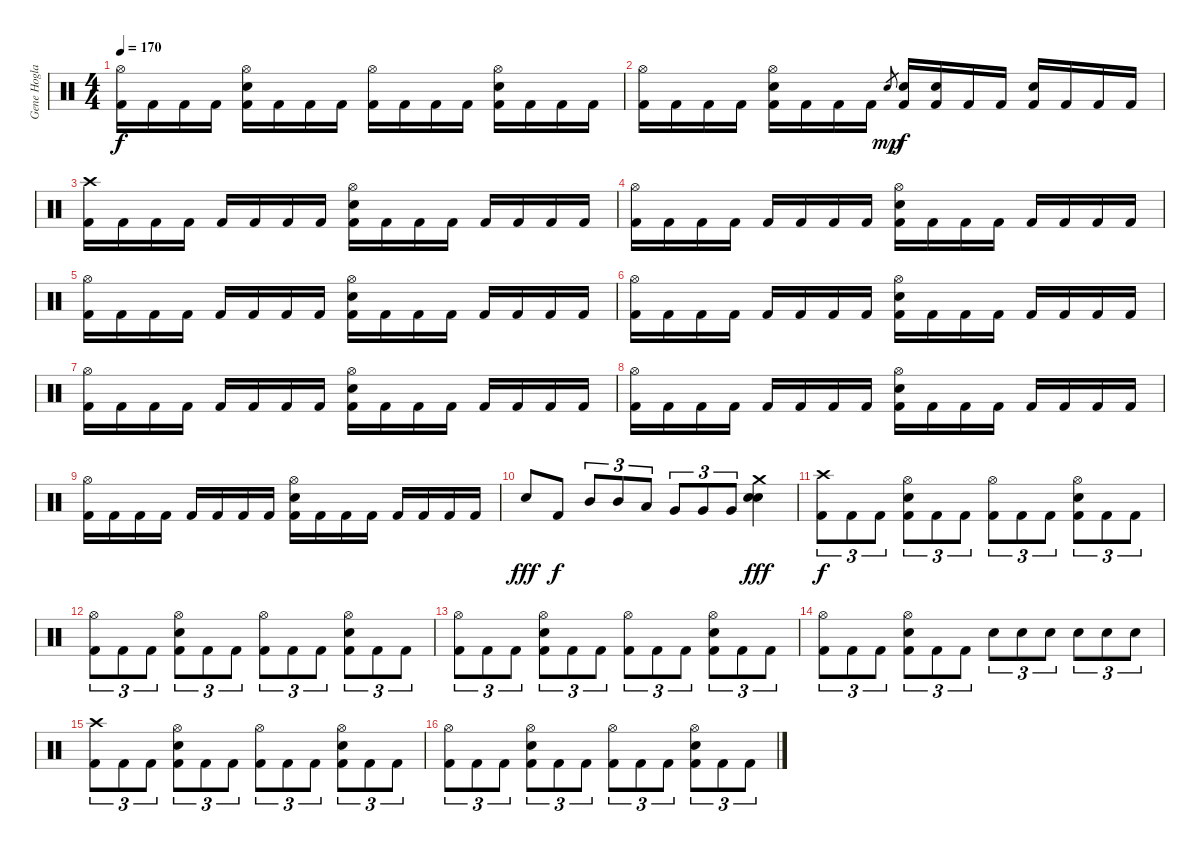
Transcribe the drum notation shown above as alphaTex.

\track ("Gene Hoglan" "Gene Hogla") {instrument percussion}
\staff {score}
\articulation defaults
\ts (4 4)
\tempo 170
\clef neutral
\ks c
("Hi-Hat (open)" "Kick (hit) 2").16{dy f} "Kick (hit) 2".16 "Kick (hit) 2".16 "Kick (hit) 2".16 ("Hi-Hat (open)" "Snare (hit) 2" "Kick (hit) 2").16 "Kick (hit) 2".16 "Kick (hit) 2".16 "Kick (hit) 2".16 ("Hi-Hat (open)" "Kick (hit) 2").16 "Kick (hit) 2".16 "Kick (hit) 2".16 "Kick (hit) 2".16 ("Hi-Hat (open)" "Snare (hit) 2" "Kick (hit) 2").16 "Kick (hit) 2".16 "Kick (hit) 2".16 "Kick (hit) 2".16 |
("Hi-Hat (open)" "Kick (hit) 2").16 "Kick (hit) 2".16 "Kick (hit) 2".16 "Kick (hit) 2".16 ("Hi-Hat (open)" "Snare (hit) 2" "Kick (hit) 2").16 "Kick (hit) 2".16 "Kick (hit) 2".16 "Kick (hit) 2".16 "Snare (hit) 2".8{gr dy mp} ("Snare (hit) 2" "Kick (hit) 2").16{dy f} ("Snare (hit) 2" "Kick (hit) 2").16 "Kick (hit) 2".16 "Kick (hit) 2".16 ("Snare (hit) 2" "Kick (hit) 2").16 "Kick (hit) 2".16 "Kick (hit) 2".16 "Kick (hit) 2".16 |
("Crash high (hit)" "Kick (hit) 2").16 "Kick (hit) 2".16 "Kick (hit) 2".16 "Kick (hit) 2".16 "Kick (hit) 2".16 "Kick (hit) 2".16 "Kick (hit) 2".16 "Kick (hit) 2".16 ("Hi-Hat (open)" "Snare (hit) 2" "Kick (hit) 2").16 "Kick (hit) 2".16 "Kick (hit) 2".16 "Kick (hit) 2".16 "Kick (hit) 2".16 "Kick (hit) 2".16 "Kick (hit) 2".16 "Kick (hit) 2".16 |
("Hi-Hat (open)" "Kick (hit) 2").16 "Kick (hit) 2".16 "Kick (hit) 2".16 "Kick (hit) 2".16 "Kick (hit) 2".16 "Kick (hit) 2".16 "Kick (hit) 2".16 "Kick (hit) 2".16 ("Hi-Hat (open)" "Snare (hit) 2" "Kick (hit) 2").16 "Kick (hit) 2".16 "Kick (hit) 2".16 "Kick (hit) 2".16 "Kick (hit) 2".16 "Kick (hit) 2".16 "Kick (hit) 2".16 "Kick (hit) 2".16 |
("Hi-Hat (open)" "Kick (hit) 2").16 "Kick (hit) 2".16 "Kick (hit) 2".16 "Kick (hit) 2".16 "Kick (hit) 2".16 "Kick (hit) 2".16 "Kick (hit) 2".16 "Kick (hit) 2".16 ("Hi-Hat (open)" "Snare (hit) 2" "Kick (hit) 2").16 "Kick (hit) 2".16 "Kick (hit) 2".16 "Kick (hit) 2".16 "Kick (hit) 2".16 "Kick (hit) 2".16 "Kick (hit) 2".16 "Kick (hit) 2".16 |
("Hi-Hat (open)" "Kick (hit) 2").16 "Kick (hit) 2".16 "Kick (hit) 2".16 "Kick (hit) 2".16 "Kick (hit) 2".16 "Kick (hit) 2".16 "Kick (hit) 2".16 "Kick (hit) 2".16 ("Hi-Hat (open)" "Snare (hit) 2" "Kick (hit) 2").16 "Kick (hit) 2".16 "Kick (hit) 2".16 "Kick (hit) 2".16 "Kick (hit) 2".16 "Kick (hit) 2".16 "Kick (hit) 2".16 "Kick (hit) 2".16 |
("Hi-Hat (open)" "Kick (hit) 2").16 "Kick (hit) 2".16 "Kick (hit) 2".16 "Kick (hit) 2".16 "Kick (hit) 2".16 "Kick (hit) 2".16 "Kick (hit) 2".16 "Kick (hit) 2".16 ("Hi-Hat (open)" "Snare (hit) 2" "Kick (hit) 2").16 "Kick (hit) 2".16 "Kick (hit) 2".16 "Kick (hit) 2".16 "Kick (hit) 2".16 "Kick (hit) 2".16 "Kick (hit) 2".16 "Kick (hit) 2".16 |
("Hi-Hat (open)" "Kick (hit) 2").16 "Kick (hit) 2".16 "Kick (hit) 2".16 "Kick (hit) 2".16 "Kick (hit) 2".16 "Kick (hit) 2".16 "Kick (hit) 2".16 "Kick (hit) 2".16 ("Hi-Hat (open)" "Snare (hit) 2" "Kick (hit) 2").16 "Kick (hit) 2".16 "Kick (hit) 2".16 "Kick (hit) 2".16 "Kick (hit) 2".16 "Kick (hit) 2".16 "Kick (hit) 2".16 "Kick (hit) 2".16 |
("Hi-Hat (open)" "Kick (hit) 2").16 "Kick (hit) 2".16 "Kick (hit) 2".16 "Kick (hit) 2".16 "Kick (hit) 2".16 "Kick (hit) 2".16 "Kick (hit) 2".16 "Kick (hit) 2".16 ("Hi-Hat (open)" "Snare (hit) 2" "Kick (hit) 2").16 "Kick (hit) 2".16 "Kick (hit) 2".16 "Kick (hit) 2".16 "Kick (hit) 2".16 "Kick (hit) 2".16 "Kick (hit) 2".16 "Kick (hit) 2".16 |
"Snare (hit) 2".8{dy fff} "Kick (hit) 2".8{dy f} "Mid Tom (hit)".8{tu (3 2)} "Mid Tom (hit)".8{tu (3 2)} "Low Tom (hit)".8{tu (3 2)} "Very Low Tom (hit)".8{tu (3 2)} "Very Low Tom (hit)".8{tu (3 2)} "Very Low Tom (hit)".8{tu (3 2)} ("Crash medium (hit)" "Snare (hit) 2" "Snare (hit) 2").4{dy fff} |
("Crash high (hit)" "Kick (hit) 2").8{tu (3 2) dy f} "Kick (hit) 2".8{tu (3 2)} "Kick (hit) 2".8{tu (3 2)} ("Hi-Hat (open)" "Snare (hit) 2" "Kick (hit) 2").8{tu (3 2)} "Kick (hit) 2".8{tu (3 2)} "Kick (hit) 2".8{tu (3 2)} ("Hi-Hat (open)" "Kick (hit) 2").8{tu (3 2)} "Kick (hit) 2".8{tu (3 2)} "Kick (hit) 2".8{tu (3 2)} ("Hi-Hat (open)" "Snare (hit) 2" "Kick (hit) 2").8{tu (3 2)} "Kick (hit) 2".8{tu (3 2)} "Kick (hit) 2".8{tu (3 2)} |
("Hi-Hat (open)" "Kick (hit) 2").8{tu (3 2)} "Kick (hit) 2".8{tu (3 2)} "Kick (hit) 2".8{tu (3 2)} ("Hi-Hat (open)" "Snare (hit) 2" "Kick (hit) 2").8{tu (3 2)} "Kick (hit) 2".8{tu (3 2)} "Kick (hit) 2".8{tu (3 2)} ("Hi-Hat (open)" "Kick (hit) 2").8{tu (3 2)} "Kick (hit) 2".8{tu (3 2)} "Kick (hit) 2".8{tu (3 2)} ("Hi-Hat (open)" "Snare (hit) 2" "Kick (hit) 2").8{tu (3 2)} "Kick (hit) 2".8{tu (3 2)} "Kick (hit) 2".8{tu (3 2)} |
("Hi-Hat (open)" "Kick (hit) 2").8{tu (3 2)} "Kick (hit) 2".8{tu (3 2)} "Kick (hit) 2".8{tu (3 2)} ("Hi-Hat (open)" "Snare (hit) 2" "Kick (hit) 2").8{tu (3 2)} "Kick (hit) 2".8{tu (3 2)} "Kick (hit) 2".8{tu (3 2)} ("Hi-Hat (open)" "Kick (hit) 2").8{tu (3 2)} "Kick (hit) 2".8{tu (3 2)} "Kick (hit) 2".8{tu (3 2)} ("Hi-Hat (open)" "Snare (hit) 2" "Kick (hit) 2").8{tu (3 2)} "Kick (hit) 2".8{tu (3 2)} "Kick (hit) 2".8{tu (3 2)} |
("Hi-Hat (open)" "Kick (hit) 2").8{tu (3 2)} "Kick (hit) 2".8{tu (3 2)} "Kick (hit) 2".8{tu (3 2)} ("Hi-Hat (open)" "Snare (hit) 2" "Kick (hit) 2").8{tu (3 2)} "Kick (hit) 2".8{tu (3 2)} "Kick (hit) 2".8{tu (3 2)} "Snare (hit) 2".8{tu (3 2)} "Snare (hit) 2".8{tu (3 2)} "Snare (hit) 2".8{tu (3 2)} "Snare (hit) 2".8{tu (3 2)} "Snare (hit) 2".8{tu (3 2)} "Snare (hit) 2".8{tu (3 2)} |
("Crash high (hit)" "Kick (hit) 2").8{tu (3 2)} "Kick (hit) 2".8{tu (3 2)} "Kick (hit) 2".8{tu (3 2)} ("Hi-Hat (open)" "Snare (hit) 2" "Kick (hit) 2").8{tu (3 2)} "Kick (hit) 2".8{tu (3 2)} "Kick (hit) 2".8{tu (3 2)} ("Hi-Hat (open)" "Kick (hit) 2").8{tu (3 2)} "Kick (hit) 2".8{tu (3 2)} "Kick (hit) 2".8{tu (3 2)} ("Hi-Hat (open)" "Snare (hit) 2" "Kick (hit) 2").8{tu (3 2)} "Kick (hit) 2".8{tu (3 2)} "Kick (hit) 2".8{tu (3 2)} |
("Hi-Hat (open)" "Kick (hit) 2").8{tu (3 2)} "Kick (hit) 2".8{tu (3 2)} "Kick (hit) 2".8{tu (3 2)} ("Hi-Hat (open)" "Snare (hit) 2" "Kick (hit) 2").8{tu (3 2)} "Kick (hit) 2".8{tu (3 2)} "Kick (hit) 2".8{tu (3 2)} ("Hi-Hat (open)" "Kick (hit) 2").8{tu (3 2)} "Kick (hit) 2".8{tu (3 2)} "Kick (hit) 2".8{tu (3 2)} ("Hi-Hat (open)" "Snare (hit) 2" "Kick (hit) 2").8{tu (3 2)} "Kick (hit) 2".8{tu (3 2)} "Kick (hit) 2".8{tu (3 2)}
